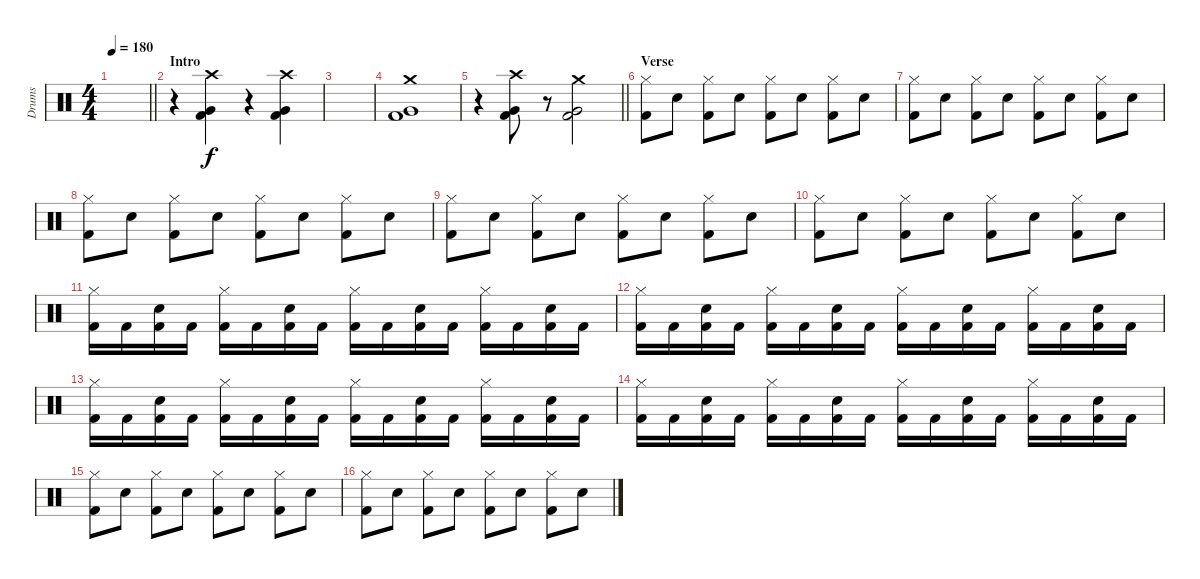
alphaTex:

\track ("Drums" "Drums") {instrument percussion}
\staff {score}
\articulation defaults
\ts (4 4)
\tempo 180
\clef neutral
\barLineRight lightlight
\ks c
|
\section ("" "Intro")
r.4 ("Crash high (hit)" "Very Low Tom (hit)" "Kick (hit) 2").4 r.4 ("Crash high (hit)" "Very Low Tom (hit)" "Kick (hit) 2").4 |
|
("Crash medium (hit)" "Very Low Tom (hit)" "Kick (hit) 2").1 |
\barLineRight lightlight
r.4 ("Crash high (hit)" "Very Low Tom (hit)" "Kick (hit) 2").8 r.8 ("Crash medium (hit)" "Very Low Tom (hit)" "Kick (hit) 2").2 |
\section ("" "Verse")
("Hi-Hat (closed)" "Kick (hit) 2").8 "Electric Snare (hit)".8 ("Hi-Hat (closed)" "Kick (hit) 2").8 "Electric Snare (hit)".8 ("Hi-Hat (closed)" "Kick (hit) 2").8 "Electric Snare (hit)".8 ("Hi-Hat (closed)" "Kick (hit) 2").8 "Electric Snare (hit)".8 |
("Hi-Hat (closed)" "Kick (hit) 2").8 "Electric Snare (hit)".8 ("Hi-Hat (closed)" "Kick (hit) 2").8 "Electric Snare (hit)".8 ("Hi-Hat (closed)" "Kick (hit) 2").8 "Electric Snare (hit)".8 ("Hi-Hat (closed)" "Kick (hit) 2").8 "Electric Snare (hit)".8 |
("Hi-Hat (closed)" "Kick (hit) 2").8 "Electric Snare (hit)".8 ("Hi-Hat (closed)" "Kick (hit) 2").8 "Electric Snare (hit)".8 ("Hi-Hat (closed)" "Kick (hit) 2").8 "Electric Snare (hit)".8 ("Hi-Hat (closed)" "Kick (hit) 2").8 "Electric Snare (hit)".8 |
("Hi-Hat (closed)" "Kick (hit) 2").8 "Electric Snare (hit)".8 ("Hi-Hat (closed)" "Kick (hit) 2").8 "Electric Snare (hit)".8 ("Hi-Hat (closed)" "Kick (hit) 2").8 "Electric Snare (hit)".8 ("Hi-Hat (closed)" "Kick (hit) 2").8 "Electric Snare (hit)".8 |
("Hi-Hat (closed)" "Kick (hit) 2").8 "Electric Snare (hit)".8 ("Hi-Hat (closed)" "Kick (hit) 2").8 "Electric Snare (hit)".8 ("Hi-Hat (closed)" "Kick (hit) 2").8 "Electric Snare (hit)".8 ("Hi-Hat (closed)" "Kick (hit) 2").8 "Electric Snare (hit)".8 |
("Hi-Hat (closed)" "Kick (hit) 2").16 "Kick (hit) 2".16 ("Electric Snare (hit)" "Kick (hit) 2").16 "Kick (hit) 2".16 ("Hi-Hat (closed)" "Kick (hit) 2").16 "Kick (hit) 2".16 ("Electric Snare (hit)" "Kick (hit) 2").16 "Kick (hit) 2".16 ("Hi-Hat (closed)" "Kick (hit) 2").16 "Kick (hit) 2".16 ("Electric Snare (hit)" "Kick (hit) 2").16 "Kick (hit) 2".16 ("Hi-Hat (closed)" "Kick (hit) 2").16 "Kick (hit) 2".16 ("Electric Snare (hit)" "Kick (hit) 2").16 "Kick (hit) 2".16 |
("Hi-Hat (closed)" "Kick (hit) 2").16 "Kick (hit) 2".16 ("Electric Snare (hit)" "Kick (hit) 2").16 "Kick (hit) 2".16 ("Hi-Hat (closed)" "Kick (hit) 2").16 "Kick (hit) 2".16 ("Electric Snare (hit)" "Kick (hit) 2").16 "Kick (hit) 2".16 ("Hi-Hat (closed)" "Kick (hit) 2").16 "Kick (hit) 2".16 ("Electric Snare (hit)" "Kick (hit) 2").16 "Kick (hit) 2".16 ("Hi-Hat (closed)" "Kick (hit) 2").16 "Kick (hit) 2".16 ("Electric Snare (hit)" "Kick (hit) 2").16 "Kick (hit) 2".16 |
("Hi-Hat (closed)" "Kick (hit) 2").16 "Kick (hit) 2".16 ("Electric Snare (hit)" "Kick (hit) 2").16 "Kick (hit) 2".16 ("Hi-Hat (closed)" "Kick (hit) 2").16 "Kick (hit) 2".16 ("Electric Snare (hit)" "Kick (hit) 2").16 "Kick (hit) 2".16 ("Hi-Hat (closed)" "Kick (hit) 2").16 "Kick (hit) 2".16 ("Electric Snare (hit)" "Kick (hit) 2").16 "Kick (hit) 2".16 ("Hi-Hat (closed)" "Kick (hit) 2").16 "Kick (hit) 2".16 ("Electric Snare (hit)" "Kick (hit) 2").16 "Kick (hit) 2".16 |
("Hi-Hat (closed)" "Kick (hit) 2").16 "Kick (hit) 2".16 ("Electric Snare (hit)" "Kick (hit) 2").16 "Kick (hit) 2".16 ("Hi-Hat (closed)" "Kick (hit) 2").16 "Kick (hit) 2".16 ("Electric Snare (hit)" "Kick (hit) 2").16 "Kick (hit) 2".16 ("Hi-Hat (closed)" "Kick (hit) 2").16 "Kick (hit) 2".16 ("Electric Snare (hit)" "Kick (hit) 2").16 "Kick (hit) 2".16 ("Hi-Hat (closed)" "Kick (hit) 2").16 "Kick (hit) 2".16 ("Electric Snare (hit)" "Kick (hit) 2").16 "Kick (hit) 2".16 |
("Hi-Hat (closed)" "Kick (hit) 2").8 "Electric Snare (hit)".8 ("Hi-Hat (closed)" "Kick (hit) 2").8 "Electric Snare (hit)".8 ("Hi-Hat (closed)" "Kick (hit) 2").8 "Electric Snare (hit)".8 ("Hi-Hat (closed)" "Kick (hit) 2").8 "Electric Snare (hit)".8 |
("Hi-Hat (closed)" "Kick (hit) 2").8 "Electric Snare (hit)".8 ("Hi-Hat (closed)" "Kick (hit) 2").8 "Electric Snare (hit)".8 ("Hi-Hat (closed)" "Kick (hit) 2").8 "Electric Snare (hit)".8 ("Hi-Hat (closed)" "Kick (hit) 2").8 "Electric Snare (hit)".8
